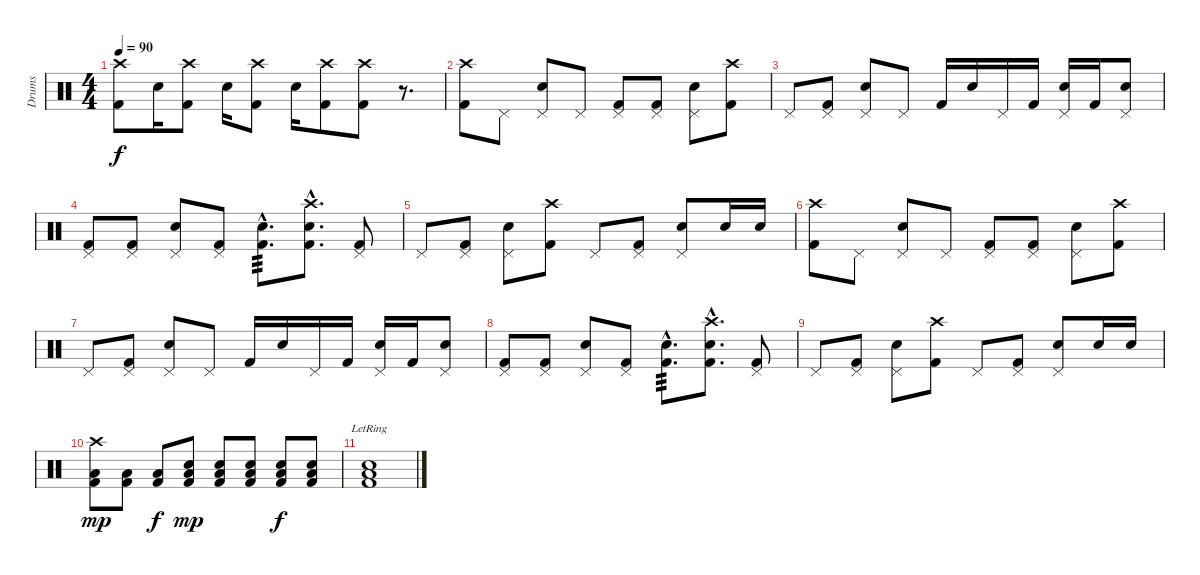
\track ("Drums" "Drums") {instrument percussion}
\staff {score}
\articulation defaults
\ts (4 4)
\tempo 90
\clef neutral
\ks c
("Crash high (hit)" "Kick (hit) 2").8{dy f} "Snare (hit) 2".16 ("Crash high (hit)" "Kick (hit) 2").8 "Snare (hit) 2".16 ("Crash high (hit)" "Kick (hit) 2").8 "Snare (hit) 2".16 ("Crash high (hit)" "Kick (hit) 2").8 ("Crash high (hit)" "Kick (hit) 2").8 r.8{d} |
("Crash high (hit)" "Kick (hit) 2").8 "Pedal Hi-Hat (hit)".8 ("Pedal Hi-Hat (hit)" "Snare (hit) 2").8 "Pedal Hi-Hat (hit)".8 ("Pedal Hi-Hat (hit)" "Kick (hit) 2").8 ("Pedal Hi-Hat (hit)" "Kick (hit) 2").8 ("Pedal Hi-Hat (hit)" "Snare (hit) 2").8 ("Crash high (hit)" "Kick (hit) 2").8 |
"Pedal Hi-Hat (hit)".8 ("Pedal Hi-Hat (hit)" "Kick (hit) 2").8 ("Pedal Hi-Hat (hit)" "Snare (hit) 2").8 "Pedal Hi-Hat (hit)".8 "Kick (hit) 2".16 "Snare (hit) 2".16 "Pedal Hi-Hat (hit)".16 "Kick (hit) 2".16 ("Pedal Hi-Hat (hit)" "Snare (hit) 2").16 "Kick (hit) 2".16 ("Pedal Hi-Hat (hit)" "Snare (hit) 2").8 |
("Pedal Hi-Hat (hit)" "Kick (hit) 2").8 ("Pedal Hi-Hat (hit)" "Kick (hit) 2").8 ("Pedal Hi-Hat (hit)" "Snare (hit) 2").8 ("Pedal Hi-Hat (hit)" "Kick (hit) 2").8 ("Kick (hit) 2"{hac} "Snare (hit) 2"{hac}).8{d tp 3} ("Crash high (hit)"{hac} "Kick (hit) 2"{hac} "Snare (hit) 2"{hac}).8{d} ("Pedal Hi-Hat (hit)" "Kick (hit) 2").8 |
"Pedal Hi-Hat (hit)".8 ("Pedal Hi-Hat (hit)" "Kick (hit) 2").8 ("Pedal Hi-Hat (hit)" "Snare (hit) 2").8 ("Crash high (hit)" "Kick (hit) 2").8 "Pedal Hi-Hat (hit)".8 ("Pedal Hi-Hat (hit)" "Kick (hit) 2").8 ("Pedal Hi-Hat (hit)" "Snare (hit) 2").8 "Snare (hit) 2".16 "Snare (hit) 2".16 |
("Crash high (hit)" "Kick (hit) 2").8 "Pedal Hi-Hat (hit)".8 ("Pedal Hi-Hat (hit)" "Snare (hit) 2").8 "Pedal Hi-Hat (hit)".8 ("Pedal Hi-Hat (hit)" "Kick (hit) 2").8 ("Pedal Hi-Hat (hit)" "Kick (hit) 2").8 ("Pedal Hi-Hat (hit)" "Snare (hit) 2").8 ("Crash high (hit)" "Kick (hit) 2").8 |
"Pedal Hi-Hat (hit)".8 ("Pedal Hi-Hat (hit)" "Kick (hit) 2").8 ("Pedal Hi-Hat (hit)" "Snare (hit) 2").8 "Pedal Hi-Hat (hit)".8 "Kick (hit) 2".16 "Snare (hit) 2".16 "Pedal Hi-Hat (hit)".16 "Kick (hit) 2".16 ("Pedal Hi-Hat (hit)" "Snare (hit) 2").16 "Kick (hit) 2".16 ("Pedal Hi-Hat (hit)" "Snare (hit) 2").8 |
("Pedal Hi-Hat (hit)" "Kick (hit) 2").8 ("Pedal Hi-Hat (hit)" "Kick (hit) 2").8 ("Pedal Hi-Hat (hit)" "Snare (hit) 2").8 ("Pedal Hi-Hat (hit)" "Kick (hit) 2").8 ("Kick (hit) 2"{hac} "Snare (hit) 2"{hac}).8{d tp 3} ("Crash high (hit)"{hac} "Kick (hit) 2"{hac} "Snare (hit) 2"{hac}).8{d} ("Pedal Hi-Hat (hit)" "Kick (hit) 2").8 |
"Pedal Hi-Hat (hit)".8 ("Pedal Hi-Hat (hit)" "Kick (hit) 2").8 ("Pedal Hi-Hat (hit)" "Snare (hit) 2").8 ("Crash high (hit)" "Kick (hit) 2").8 "Pedal Hi-Hat (hit)".8 ("Pedal Hi-Hat (hit)" "Kick (hit) 2").8 ("Pedal Hi-Hat (hit)" "Snare (hit) 2").8 "Snare (hit) 2".16 "Snare (hit) 2".16 |
("Crash high (hit)" "Low Floor Tom (hit)" "Kick (hit) 2").8{dy mp} ("Low Floor Tom (hit)" "Kick (hit) 2").8 ("Low Floor Tom (hit)" "Kick (hit) 2").8{dy f} ("Snare (hit) 2" "Low Floor Tom (hit)" "Kick (hit) 2").8{dy mp} ("Snare (hit) 2" "Low Floor Tom (hit)" "Kick (hit) 2").8 ("Snare (hit) 2" "Low Floor Tom (hit)" "Kick (hit) 2").8 ("Snare (hit) 2" "Low Floor Tom (hit)" "Kick (hit) 2").8{dy f} ("Snare (hit) 2" "Low Floor Tom (hit)" "Kick (hit) 2").8 |
("Snare (hit) 2"{lr} "Low Floor Tom (hit)"{lr} "Kick (hit) 2"{lr}).1
